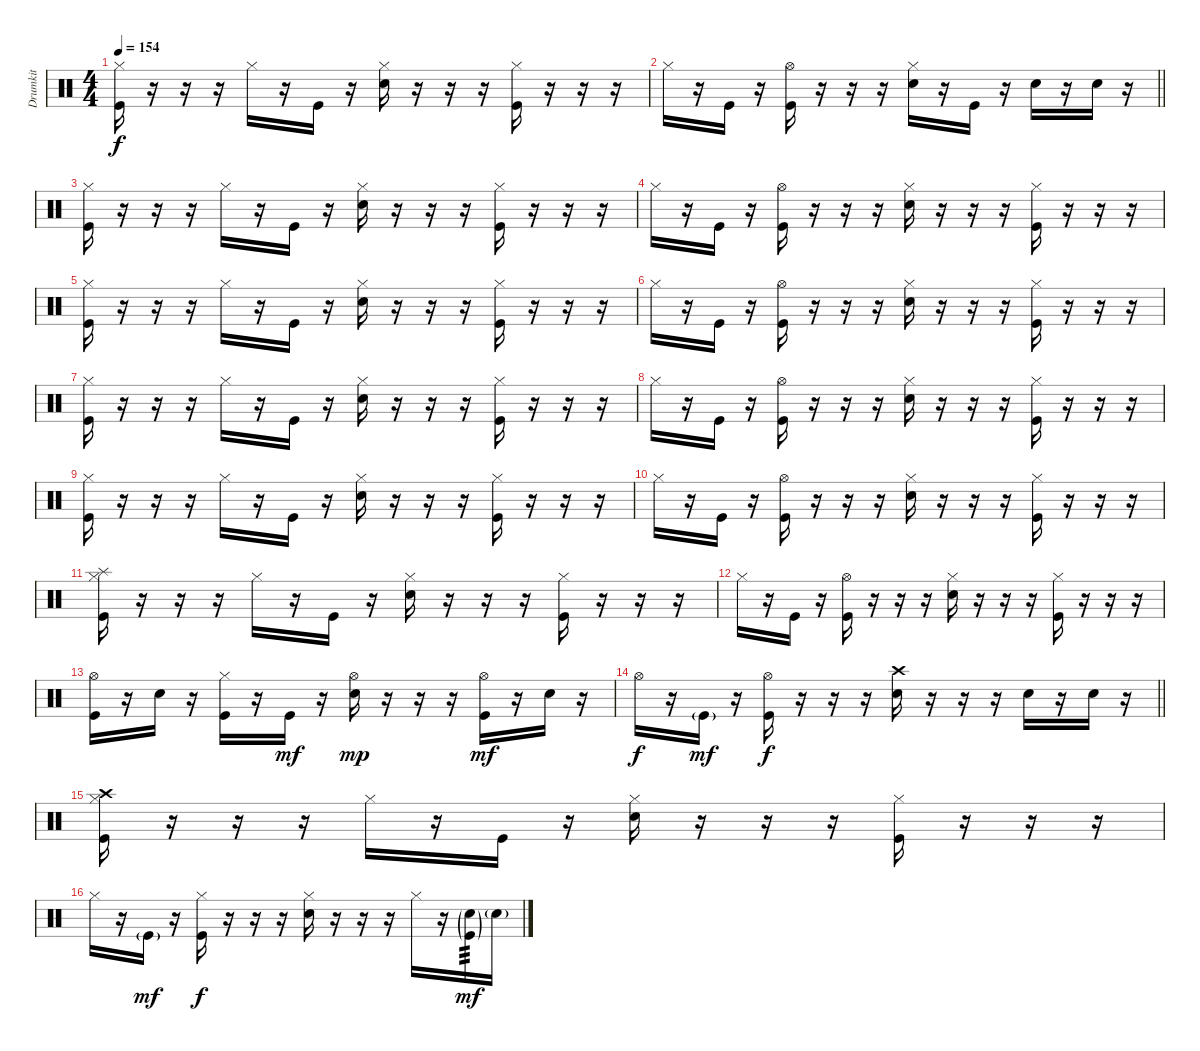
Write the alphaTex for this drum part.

\track ("Drumkit" "Drumkit") {instrument percussion}
\staff {score}
\articulation defaults
\ts (4 4)
\tempo 154
\clef neutral
\ks c
("Hi-Hat (closed)" "Kick (hit)").16{dy f} r.16 r.16 r.16 "Hi-Hat (closed)".16 r.16 "Kick (hit)".16 r.16 ("Hi-Hat (closed)" "Snare (hit) 2").16 r.16 r.16 r.16 ("Hi-Hat (closed)" "Kick (hit)").16 r.16 r.16 r.16 |
\barLineRight lightlight "Hi-Hat (closed)".16
r.16 "Kick (hit)".16 r.16 ("Hi-Hat (open)" "Kick (hit)").16 r.16 r.16 r.16 ("Hi-Hat (closed)" "Snare (hit) 2").16 r.16 "Kick (hit)".16 r.16 "Snare (hit) 2".16 r.16 "Snare (hit) 2".16 r.16 |
("Hi-Hat (closed)" "Kick (hit)").16 r.16 r.16 r.16 "Hi-Hat (closed)".16 r.16 "Kick (hit)".16 r.16 ("Hi-Hat (closed)" "Snare (hit) 2").16 r.16 r.16 r.16 ("Hi-Hat (closed)" "Kick (hit)").16 r.16 r.16 r.16 |
"Hi-Hat (closed)".16 r.16 "Kick (hit)".16 r.16 ("Hi-Hat (open)" "Kick (hit)").16 r.16 r.16 r.16 ("Hi-Hat (closed)" "Snare (hit) 2").16 r.16 r.16 r.16 ("Hi-Hat (closed)" "Kick (hit)").16 r.16 r.16 r.16 |
("Hi-Hat (closed)" "Kick (hit)").16 r.16 r.16 r.16 "Hi-Hat (closed)".16 r.16 "Kick (hit)".16 r.16 ("Hi-Hat (closed)" "Snare (hit) 2").16 r.16 r.16 r.16 ("Hi-Hat (closed)" "Kick (hit)").16 r.16 r.16 r.16 |
"Hi-Hat (closed)".16 r.16 "Kick (hit)".16 r.16 ("Hi-Hat (open)" "Kick (hit)").16 r.16 r.16 r.16 ("Hi-Hat (closed)" "Snare (hit) 2").16 r.16 r.16 r.16 ("Hi-Hat (closed)" "Kick (hit)").16 r.16 r.16 r.16 |
("Hi-Hat (closed)" "Kick (hit)").16 r.16 r.16 r.16 "Hi-Hat (closed)".16 r.16 "Kick (hit)".16 r.16 ("Hi-Hat (closed)" "Snare (hit) 2").16 r.16 r.16 r.16 ("Hi-Hat (closed)" "Kick (hit)").16 r.16 r.16 r.16 |
"Hi-Hat (closed)".16 r.16 "Kick (hit)".16 r.16 ("Hi-Hat (open)" "Kick (hit)").16 r.16 r.16 r.16 ("Hi-Hat (closed)" "Snare (hit) 2").16 r.16 r.16 r.16 ("Hi-Hat (closed)" "Kick (hit)").16 r.16 r.16 r.16 |
("Hi-Hat (closed)" "Kick (hit)").16 r.16 r.16 r.16 "Hi-Hat (closed)".16 r.16 "Kick (hit)".16 r.16 ("Hi-Hat (closed)" "Snare (hit) 2").16 r.16 r.16 r.16 ("Hi-Hat (closed)" "Kick (hit)").16 r.16 r.16 r.16 |
"Hi-Hat (closed)".16 r.16 "Kick (hit)".16 r.16 ("Hi-Hat (open)" "Kick (hit)").16 r.16 r.16 r.16 ("Hi-Hat (closed)" "Snare (hit) 2").16 r.16 r.16 r.16 ("Hi-Hat (closed)" "Kick (hit)").16 r.16 r.16 r.16 |
("Splash (hit)" "Hi-Hat (closed)" "Kick (hit)").16 r.16 r.16 r.16 "Hi-Hat (closed)".16 r.16 "Kick (hit)".16 r.16 ("Hi-Hat (closed)" "Snare (hit) 2").16 r.16 r.16 r.16 ("Hi-Hat (closed)" "Kick (hit)").16 r.16 r.16 r.16 |
"Hi-Hat (closed)".16 r.16 "Kick (hit)".16 r.16 ("Hi-Hat (open)" "Kick (hit)").16 r.16 r.16 r.16 ("Hi-Hat (closed)" "Snare (hit) 2").16 r.16 r.16 r.16 ("Hi-Hat (closed)" "Kick (hit)").16 r.16 r.16 r.16 |
("Hi-Hat (open)" "Kick (hit)").16 r.16 "Snare (hit) 2".16 r.16 ("Hi-Hat (closed)" "Kick (hit)").16 r.16 "Kick (hit)".16{dy mf} r.16 ("Hi-Hat (open)" "Snare (hit) 2").16{dy mp} r.16 r.16 r.16 ("Hi-Hat (open)" "Kick (hit)").16{dy mf} r.16 "Snare (hit) 2".16 r.16 |
\barLineRight lightlight "Hi-Hat (open)".16{dy f}
r.16 "Kick (hit)"{g}.16{dy mf} r.16 ("Hi-Hat (open)" "Kick (hit)").16{dy f} r.16 r.16 r.16 ("Crash high (hit)" "Snare (hit) 2").16 r.16 r.16 r.16 "Snare (hit) 2".16 r.16 "Snare (hit) 2".16 r.16 |
("Crash high (hit)" "Hi-Hat (closed)" "Kick (hit)").16 r.16 r.16 r.16 "Hi-Hat (closed)".16 r.16 "Kick (hit)".16 r.16 ("Hi-Hat (closed)" "Snare (hit) 2").16 r.16 r.16 r.16 ("Hi-Hat (closed)" "Kick (hit)").16 r.16 r.16 r.16 |
"Hi-Hat (closed)".16 r.16 "Kick (hit)"{g}.16{dy mf} r.16 ("Hi-Hat (closed)" "Kick (hit)").16{dy f} r.16 r.16 r.16 ("Hi-Hat (closed)" "Snare (hit) 2").16 r.16 r.16 r.16 "Hi-Hat (closed)".16 r.16 ("Snare (hit) 2"{g} "Kick (hit)"{g}).16{tp 3 dy mf} "Snare (hit) 2"{g}.16
